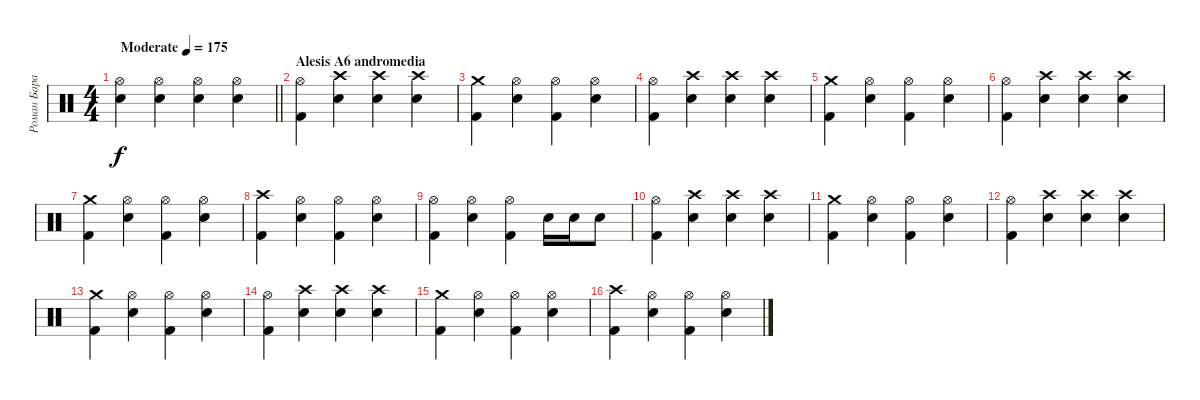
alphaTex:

\track ("Роман Баранюк" "Роман Бара") {instrument percussion}
\staff {score}
\articulation defaults
\ts (4 4)
\tempo (175 "Moderate")
\clef neutral
\barLineRight lightlight
\ks c
("Hi-Hat (open)" "Snare (hit) 2").4{dy f} ("Hi-Hat (open)" "Snare (hit) 2").4 ("Hi-Hat (open)" "Snare (hit) 2").4 ("Hi-Hat (open)" "Snare (hit) 2").4 |
\section ("" "Alesis A6 andromedia")
("Hi-Hat (open)" "Kick (hit) 2").4 ("Crash high (hit)" "Snare (hit) 2").4 ("Crash high (hit)" "Snare (hit) 2").4 ("Crash high (hit)" "Snare (hit) 2").4 |
("Crash medium (hit)" "Kick (hit) 2").4 ("Hi-Hat (open)" "Snare (hit) 2").4 ("Hi-Hat (open)" "Kick (hit) 2").4 ("Hi-Hat (open)" "Snare (hit) 2").4 |
("Hi-Hat (open)" "Kick (hit) 2").4 ("Crash high (hit)" "Snare (hit) 2").4 ("Crash high (hit)" "Snare (hit) 2").4 ("Crash high (hit)" "Snare (hit) 2").4 |
("Crash medium (hit)" "Kick (hit) 2").4 ("Hi-Hat (open)" "Snare (hit) 2").4 ("Hi-Hat (open)" "Kick (hit) 2").4 ("Hi-Hat (open)" "Snare (hit) 2").4 |
("Hi-Hat (open)" "Kick (hit) 2").4 ("Crash high (hit)" "Snare (hit) 2").4 ("Crash high (hit)" "Snare (hit) 2").4 ("Crash high (hit)" "Snare (hit) 2").4 |
("Crash medium (hit)" "Kick (hit) 2").4 ("Hi-Hat (open)" "Snare (hit) 2").4 ("Hi-Hat (open)" "Kick (hit) 2").4 ("Hi-Hat (open)" "Snare (hit) 2").4 |
("Crash high (hit)" "Kick (hit) 2").4 ("Hi-Hat (open)" "Snare (hit) 2").4 ("Hi-Hat (open)" "Kick (hit) 2").4 ("Hi-Hat (open)" "Snare (hit) 2").4 |
("Hi-Hat (open)" "Kick (hit) 2").4 ("Hi-Hat (open)" "Snare (hit) 2").4 ("Hi-Hat (open)" "Kick (hit) 2").4 "Snare (hit) 2".16 "Snare (hit) 2".16 "Snare (hit) 2".8 |
("Hi-Hat (open)" "Kick (hit) 2").4 ("Crash high (hit)" "Snare (hit) 2").4 ("Crash high (hit)" "Snare (hit) 2").4 ("Crash high (hit)" "Snare (hit) 2").4 |
("Crash medium (hit)" "Kick (hit) 2").4 ("Hi-Hat (open)" "Snare (hit) 2").4 ("Hi-Hat (open)" "Kick (hit) 2").4 ("Hi-Hat (open)" "Snare (hit) 2").4 |
("Hi-Hat (open)" "Kick (hit) 2").4 ("Crash high (hit)" "Snare (hit) 2").4 ("Crash high (hit)" "Snare (hit) 2").4 ("Crash high (hit)" "Snare (hit) 2").4 |
("Crash medium (hit)" "Kick (hit) 2").4 ("Hi-Hat (open)" "Snare (hit) 2").4 ("Hi-Hat (open)" "Kick (hit) 2").4 ("Hi-Hat (open)" "Snare (hit) 2").4 |
("Hi-Hat (open)" "Kick (hit) 2").4 ("Crash high (hit)" "Snare (hit) 2").4 ("Crash high (hit)" "Snare (hit) 2").4 ("Crash high (hit)" "Snare (hit) 2").4 |
("Crash medium (hit)" "Kick (hit) 2").4 ("Hi-Hat (open)" "Snare (hit) 2").4 ("Hi-Hat (open)" "Kick (hit) 2").4 ("Hi-Hat (open)" "Snare (hit) 2").4 |
("Crash high (hit)" "Kick (hit) 2").4 ("Hi-Hat (open)" "Snare (hit) 2").4 ("Hi-Hat (open)" "Kick (hit) 2").4 ("Hi-Hat (open)" "Snare (hit) 2").4
